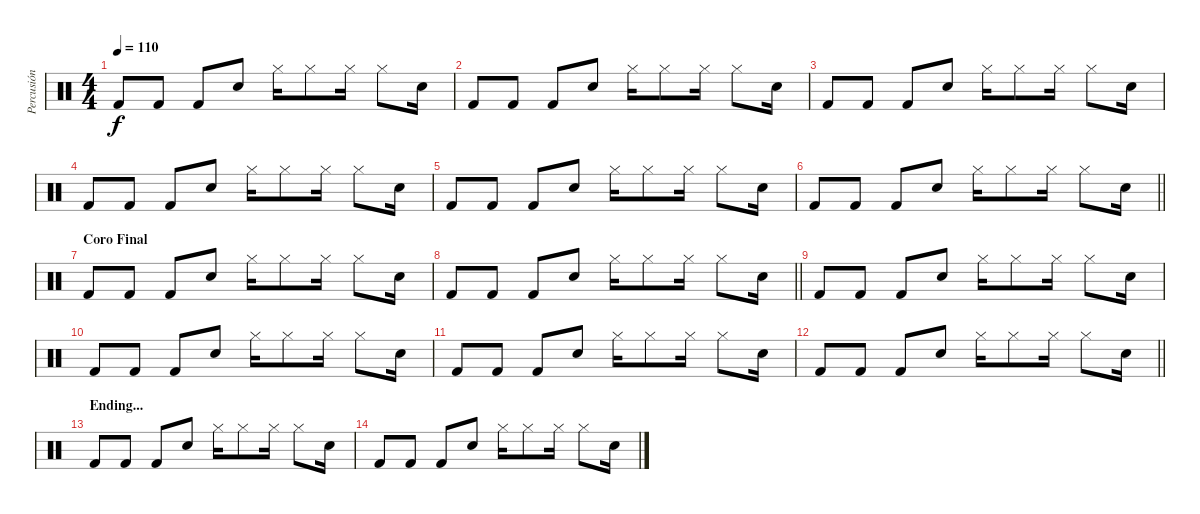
\track ("Percusión" "Percusión") {instrument percussion}
\staff {score}
\articulation defaults
\ts (4 4)
\tempo 110
\clef neutral
\ks c "Kick (hit) 2".8{dy f} "Kick (hit) 2".8 "Kick (hit) 2".8 "Snare (hit) 2".8 "Hi-Hat (closed)".16 "Hi-Hat (closed)".8 "Hi-Hat (closed)".16 "Hi-Hat (closed)".8 "Snare (hit) 2".16
|
"Kick (hit) 2".8 "Kick (hit) 2".8 "Kick (hit) 2".8 "Snare (hit) 2".8 "Hi-Hat (closed)".16 "Hi-Hat (closed)".8 "Hi-Hat (closed)".16 "Hi-Hat (closed)".8 "Snare (hit) 2".16 |
"Kick (hit) 2".8 "Kick (hit) 2".8 "Kick (hit) 2".8 "Snare (hit) 2".8 "Hi-Hat (closed)".16 "Hi-Hat (closed)".8 "Hi-Hat (closed)".16 "Hi-Hat (closed)".8 "Snare (hit) 2".16 |
"Kick (hit) 2".8 "Kick (hit) 2".8 "Kick (hit) 2".8 "Snare (hit) 2".8 "Hi-Hat (closed)".16 "Hi-Hat (closed)".8 "Hi-Hat (closed)".16 "Hi-Hat (closed)".8 "Snare (hit) 2".16 |
"Kick (hit) 2".8 "Kick (hit) 2".8 "Kick (hit) 2".8 "Snare (hit) 2".8 "Hi-Hat (closed)".16 "Hi-Hat (closed)".8 "Hi-Hat (closed)".16 "Hi-Hat (closed)".8 "Snare (hit) 2".16 |
\barLineRight lightlight "Kick (hit) 2".8 "Kick (hit) 2".8 "Kick (hit) 2".8 "Snare (hit) 2".8 "Hi-Hat (closed)".16 "Hi-Hat (closed)".8 "Hi-Hat (closed)".16 "Hi-Hat (closed)".8 "Snare (hit) 2".16
|
\section ("" "Coro Final")
"Kick (hit) 2".8 "Kick (hit) 2".8 "Kick (hit) 2".8 "Snare (hit) 2".8 "Hi-Hat (closed)".16 "Hi-Hat (closed)".8 "Hi-Hat (closed)".16 "Hi-Hat (closed)".8 "Snare (hit) 2".16 |
\barLineRight lightlight "Kick (hit) 2".8 "Kick (hit) 2".8 "Kick (hit) 2".8 "Snare (hit) 2".8 "Hi-Hat (closed)".16 "Hi-Hat (closed)".8 "Hi-Hat (closed)".16 "Hi-Hat (closed)".8 "Snare (hit) 2".16
|
"Kick (hit) 2".8 "Kick (hit) 2".8 "Kick (hit) 2".8 "Snare (hit) 2".8 "Hi-Hat (closed)".16 "Hi-Hat (closed)".8 "Hi-Hat (closed)".16 "Hi-Hat (closed)".8 "Snare (hit) 2".16 |
"Kick (hit) 2".8 "Kick (hit) 2".8 "Kick (hit) 2".8 "Snare (hit) 2".8 "Hi-Hat (closed)".16 "Hi-Hat (closed)".8 "Hi-Hat (closed)".16 "Hi-Hat (closed)".8 "Snare (hit) 2".16 |
"Kick (hit) 2".8 "Kick (hit) 2".8 "Kick (hit) 2".8 "Snare (hit) 2".8 "Hi-Hat (closed)".16 "Hi-Hat (closed)".8 "Hi-Hat (closed)".16 "Hi-Hat (closed)".8 "Snare (hit) 2".16 |
\barLineRight lightlight "Kick (hit) 2".8 "Kick (hit) 2".8 "Kick (hit) 2".8 "Snare (hit) 2".8 "Hi-Hat (closed)".16 "Hi-Hat (closed)".8 "Hi-Hat (closed)".16 "Hi-Hat (closed)".8 "Snare (hit) 2".16
|
\section ("" "Ending...")
"Kick (hit) 2".8 "Kick (hit) 2".8 "Kick (hit) 2".8 "Snare (hit) 2".8 "Hi-Hat (closed)".16 "Hi-Hat (closed)".8 "Hi-Hat (closed)".16 "Hi-Hat (closed)".8 "Snare (hit) 2".16 |
"Kick (hit) 2".8 "Kick (hit) 2".8 "Kick (hit) 2".8 "Snare (hit) 2".8 "Hi-Hat (closed)".16 "Hi-Hat (closed)".8 "Hi-Hat (closed)".16 "Hi-Hat (closed)".8 "Snare (hit) 2".16
